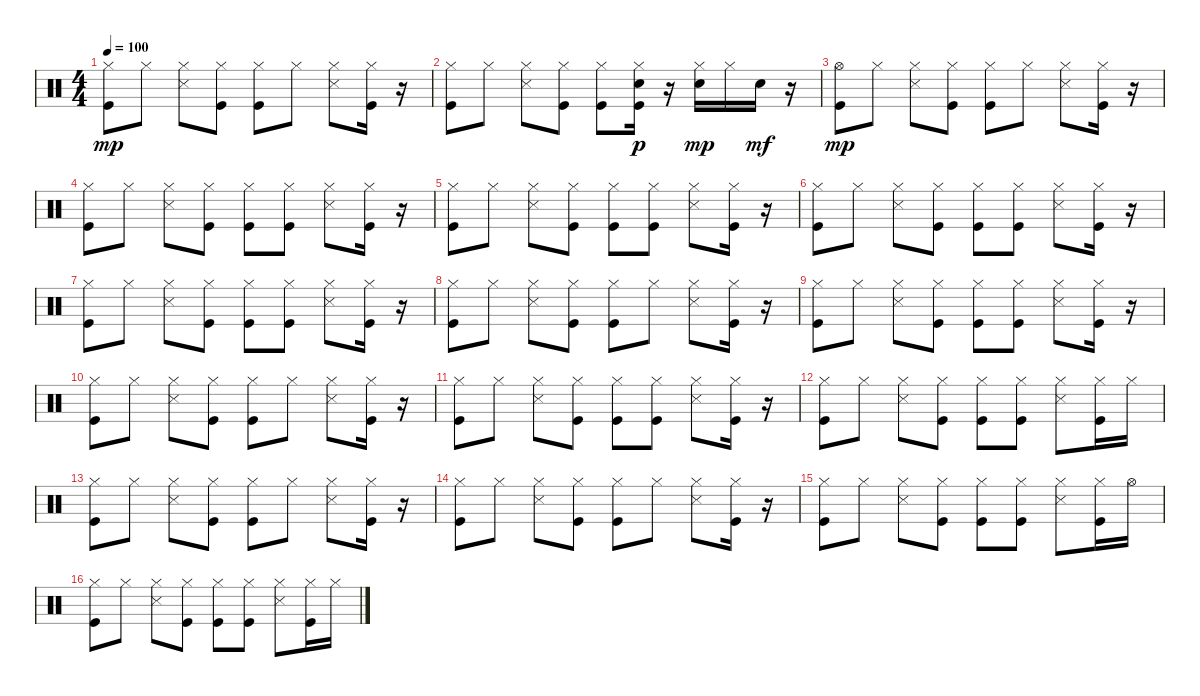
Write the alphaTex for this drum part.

\track "" {instrument percussion}
\staff {score}
\articulation defaults
\ts (4 4)
\tempo 100
\clef neutral
\ks c
("Kick (hit)" "Hi-Hat (closed)").8{dy mp} "Hi-Hat (closed)".8 ("Snare (side stick) 3" "Hi-Hat (closed)").8 ("Kick (hit)" "Hi-Hat (closed)").8 ("Kick (hit)" "Hi-Hat (closed)").8 "Hi-Hat (closed)".8 ("Snare (side stick) 3" "Hi-Hat (closed)").8 ("Kick (hit)" "Hi-Hat (closed)").16 r.16 |
("Kick (hit)" "Hi-Hat (closed)").8 "Hi-Hat (closed)".8 ("Snare (side stick) 3" "Hi-Hat (closed)").8 ("Kick (hit)" "Hi-Hat (closed)").8 ("Kick (hit)" "Hi-Hat (closed)").8 ("Kick (hit)" "Hi-Hat (closed)" "Snare (hit) 2").16{dy p} r.16 ("Snare (hit) 2" "Hi-Hat (closed)").16{dy mp} "Hi-Hat (closed)".16 "Snare (hit) 2".16{dy mf} r.16 |
("Kick (hit)" "Hi-Hat (open)").8{dy mp} "Hi-Hat (closed)".8 ("Snare (side stick) 3" "Hi-Hat (closed)").8 ("Kick (hit)" "Hi-Hat (closed)").8 ("Kick (hit)" "Hi-Hat (closed)").8 "Hi-Hat (closed)".8 ("Snare (side stick) 3" "Hi-Hat (closed)").8 ("Kick (hit)" "Hi-Hat (closed)").16 r.16 |
("Kick (hit)" "Hi-Hat (closed)").8 "Hi-Hat (closed)".8 ("Snare (side stick) 3" "Hi-Hat (closed)").8 ("Kick (hit)" "Hi-Hat (closed)").8 ("Kick (hit)" "Hi-Hat (closed)").8 ("Kick (hit)" "Hi-Hat (closed)").8 ("Snare (side stick) 3" "Hi-Hat (closed)").8 ("Kick (hit)" "Hi-Hat (closed)").16 r.16 |
("Kick (hit)" "Hi-Hat (closed)").8 "Hi-Hat (closed)".8 ("Snare (side stick) 3" "Hi-Hat (closed)").8 ("Kick (hit)" "Hi-Hat (closed)").8 ("Kick (hit)" "Hi-Hat (closed)").8 ("Kick (hit)" "Hi-Hat (closed)").8 ("Snare (side stick) 3" "Hi-Hat (closed)").8 ("Kick (hit)" "Hi-Hat (closed)").16 r.16 |
("Kick (hit)" "Hi-Hat (closed)").8 "Hi-Hat (closed)".8 ("Snare (side stick) 3" "Hi-Hat (closed)").8 ("Kick (hit)" "Hi-Hat (closed)").8 ("Kick (hit)" "Hi-Hat (closed)").8 ("Kick (hit)" "Hi-Hat (closed)").8 ("Snare (side stick) 3" "Hi-Hat (closed)").8 ("Kick (hit)" "Hi-Hat (closed)").16 r.16 |
("Kick (hit)" "Hi-Hat (closed)").8 "Hi-Hat (closed)".8 ("Snare (side stick) 3" "Hi-Hat (closed)").8 ("Kick (hit)" "Hi-Hat (closed)").8 ("Kick (hit)" "Hi-Hat (closed)").8 ("Kick (hit)" "Hi-Hat (closed)").8 ("Snare (side stick) 3" "Hi-Hat (closed)").8 ("Kick (hit)" "Hi-Hat (closed)").16 r.16 |
("Kick (hit)" "Hi-Hat (closed)").8 "Hi-Hat (closed)".8 ("Snare (side stick) 3" "Hi-Hat (closed)").8 ("Kick (hit)" "Hi-Hat (closed)").8 ("Kick (hit)" "Hi-Hat (closed)").8 "Hi-Hat (closed)".8 ("Snare (side stick) 3" "Hi-Hat (closed)").8 ("Kick (hit)" "Hi-Hat (closed)").16 r.16 |
("Kick (hit)" "Hi-Hat (closed)").8 "Hi-Hat (closed)".8 ("Snare (side stick) 3" "Hi-Hat (closed)").8 ("Kick (hit)" "Hi-Hat (closed)").8 ("Kick (hit)" "Hi-Hat (closed)").8 ("Kick (hit)" "Hi-Hat (closed)").8 ("Snare (side stick) 3" "Hi-Hat (closed)").8 ("Kick (hit)" "Hi-Hat (closed)").16 r.16 |
("Kick (hit)" "Hi-Hat (closed)").8 "Hi-Hat (closed)".8 ("Snare (side stick) 3" "Hi-Hat (closed)").8 ("Kick (hit)" "Hi-Hat (closed)").8 ("Kick (hit)" "Hi-Hat (closed)").8 "Hi-Hat (closed)".8 ("Snare (side stick) 3" "Hi-Hat (closed)").8 ("Kick (hit)" "Hi-Hat (closed)").16 r.16 |
("Kick (hit)" "Hi-Hat (closed)").8 "Hi-Hat (closed)".8 ("Snare (side stick) 3" "Hi-Hat (closed)").8 ("Kick (hit)" "Hi-Hat (closed)").8 ("Kick (hit)" "Hi-Hat (closed)").8 ("Kick (hit)" "Hi-Hat (closed)").8 ("Snare (side stick) 3" "Hi-Hat (closed)").8 ("Kick (hit)" "Hi-Hat (closed)").16 r.16 |
("Kick (hit)" "Hi-Hat (closed)").8 "Hi-Hat (closed)".8 ("Snare (side stick) 3" "Hi-Hat (closed)").8 ("Kick (hit)" "Hi-Hat (closed)").8 ("Kick (hit)" "Hi-Hat (closed)").8 ("Kick (hit)" "Hi-Hat (closed)").8 ("Snare (side stick) 3" "Hi-Hat (closed)").8 ("Kick (hit)" "Hi-Hat (closed)").16 "Hi-Hat (closed)".16 |
("Kick (hit)" "Hi-Hat (closed)").8 "Hi-Hat (closed)".8 ("Snare (side stick) 3" "Hi-Hat (closed)").8 ("Kick (hit)" "Hi-Hat (closed)").8 ("Kick (hit)" "Hi-Hat (closed)").8 "Hi-Hat (closed)".8 ("Snare (side stick) 3" "Hi-Hat (closed)").8 ("Kick (hit)" "Hi-Hat (closed)").16 r.16 |
("Kick (hit)" "Hi-Hat (closed)").8 "Hi-Hat (closed)".8 ("Snare (side stick) 3" "Hi-Hat (closed)").8 ("Kick (hit)" "Hi-Hat (closed)").8 ("Kick (hit)" "Hi-Hat (closed)").8 "Hi-Hat (closed)".8 ("Snare (side stick) 3" "Hi-Hat (closed)").8 ("Kick (hit)" "Hi-Hat (closed)").16 r.16 |
("Kick (hit)" "Hi-Hat (closed)").8 "Hi-Hat (closed)".8 ("Snare (side stick) 3" "Hi-Hat (closed)").8 ("Kick (hit)" "Hi-Hat (closed)").8 ("Kick (hit)" "Hi-Hat (closed)").8 ("Kick (hit)" "Hi-Hat (closed)").8 ("Snare (side stick) 3" "Hi-Hat (closed)").8 ("Kick (hit)" "Hi-Hat (closed)").16 "Hi-Hat (open)".16 |
("Kick (hit)" "Hi-Hat (closed)").8 "Hi-Hat (closed)".8 ("Snare (side stick) 3" "Hi-Hat (closed)").8 ("Kick (hit)" "Hi-Hat (closed)").8 ("Kick (hit)" "Hi-Hat (closed)").8 ("Kick (hit)" "Hi-Hat (closed)").8 ("Snare (side stick) 3" "Hi-Hat (closed)").8 ("Kick (hit)" "Hi-Hat (closed)").16 "Hi-Hat (closed)".16
